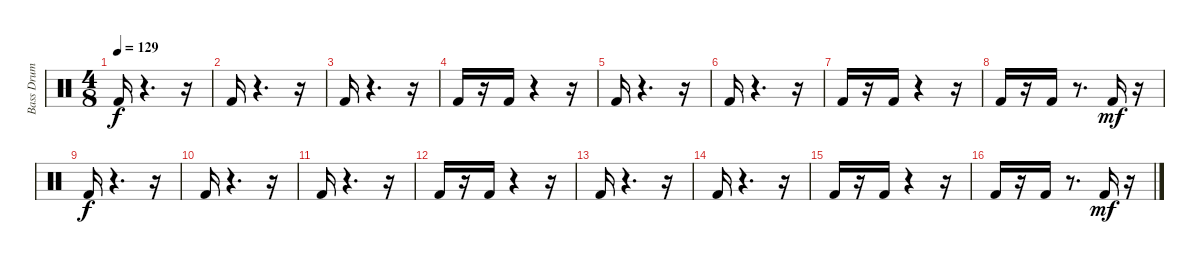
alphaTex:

\track ("Bass Drum" "Bass Drum") {instrument percussion}
\staff {score}
\articulation defaults
\ts (4 8)
\tempo 129
\clef neutral
\ks c "Kick (hit) 2".16{dy f}
r.4{d} r.16 |
"Kick (hit) 2".16 r.4{d} r.16 |
"Kick (hit) 2".16 r.4{d} r.16 |
"Kick (hit) 2".16 r.16 "Kick (hit) 2".16 r.4 r.16 |
"Kick (hit) 2".16 r.4{d} r.16 |
"Kick (hit) 2".16 r.4{d} r.16 |
"Kick (hit) 2".16 r.16 "Kick (hit) 2".16 r.4 r.16 |
"Kick (hit) 2".16 r.16 "Kick (hit) 2".16 r.8{d} "Kick (hit) 2".16{dy mf} r.16 |
"Kick (hit) 2".16{dy f} r.4{d} r.16 |
"Kick (hit) 2".16 r.4{d} r.16 |
"Kick (hit) 2".16 r.4{d} r.16 |
"Kick (hit) 2".16 r.16 "Kick (hit) 2".16 r.4 r.16 |
"Kick (hit) 2".16 r.4{d} r.16 |
"Kick (hit) 2".16 r.4{d} r.16 |
"Kick (hit) 2".16 r.16 "Kick (hit) 2".16 r.4 r.16 |
"Kick (hit) 2".16 r.16 "Kick (hit) 2".16 r.8{d} "Kick (hit) 2".16{dy mf} r.16
